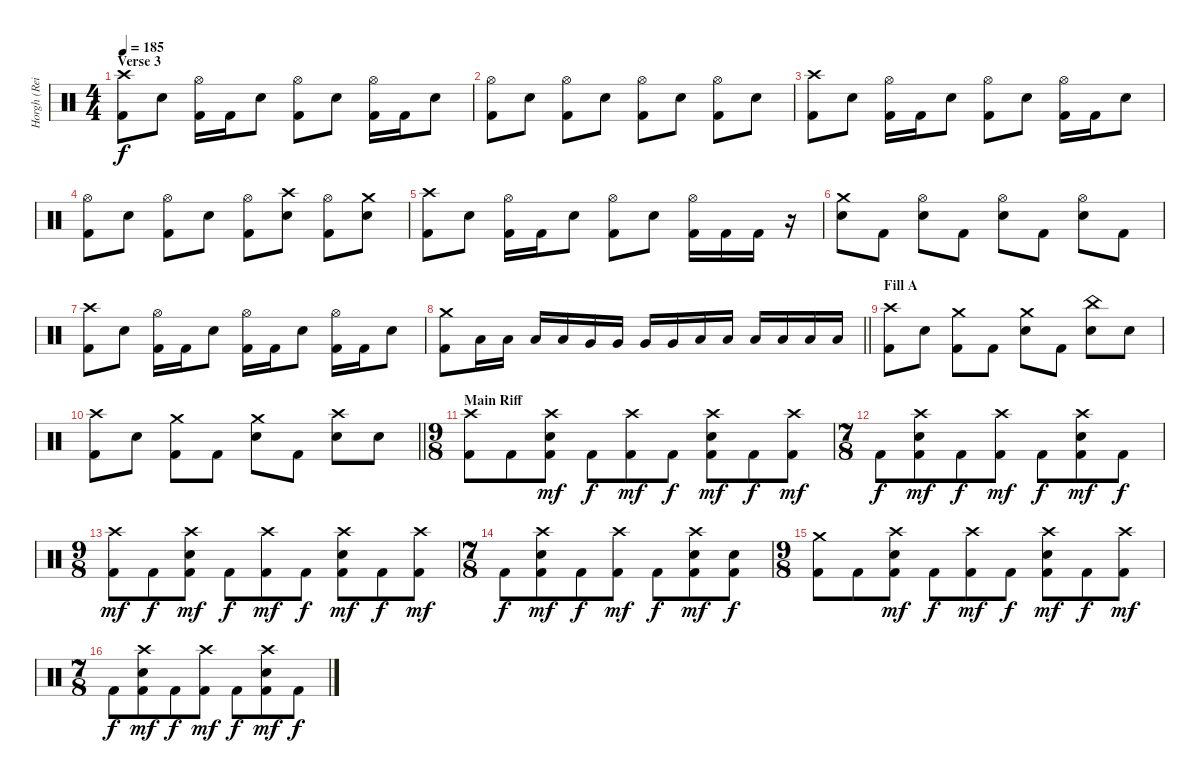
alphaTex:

\track ("Horgh (Reidar Horghagen)" "Horgh (Rei") {instrument percussion}
\staff {score}
\articulation defaults
\ts (4 4)
\section ("" "Verse 3")
\tempo 185
\clef neutral
\ks c
("Crash high (hit)" "Kick (hit) 2").8{dy f} "Snare (hit) 2".8 ("Hi-Hat (open)" "Kick (hit) 2").16 "Kick (hit) 2".16 "Snare (hit) 2".8 ("Hi-Hat (open)" "Kick (hit) 2").8 "Snare (hit) 2".8 ("Hi-Hat (open)" "Kick (hit) 2").16 "Kick (hit) 2".16 "Snare (hit) 2".8 |
("Hi-Hat (open)" "Kick (hit) 2").8 "Snare (hit) 2".8 ("Hi-Hat (open)" "Kick (hit) 2").8 "Snare (hit) 2".8 ("Hi-Hat (open)" "Kick (hit) 2").8 "Snare (hit) 2".8 ("Hi-Hat (open)" "Kick (hit) 2").8 "Snare (hit) 2".8 |
("Crash high (hit)" "Kick (hit) 2").8 "Snare (hit) 2".8 ("Hi-Hat (open)" "Kick (hit) 2").16 "Kick (hit) 2".16 "Snare (hit) 2".8 ("Hi-Hat (open)" "Kick (hit) 2").8 "Snare (hit) 2".8 ("Hi-Hat (open)" "Kick (hit) 2").16 "Kick (hit) 2".16 "Snare (hit) 2".8 |
("Hi-Hat (open)" "Kick (hit) 2").8 "Snare (hit) 2".8 ("Hi-Hat (open)" "Kick (hit) 2").8 "Snare (hit) 2".8 ("Hi-Hat (open)" "Kick (hit) 2").8 ("Crash high (hit)" "Snare (hit) 2").8 ("Hi-Hat (open)" "Kick (hit) 2").8 ("Crash medium (hit)" "Snare (hit) 2").8 |
("Crash high (hit)" "Kick (hit) 2").8 "Snare (hit) 2".8 ("Hi-Hat (open)" "Kick (hit) 2").16 "Kick (hit) 2".16 "Snare (hit) 2".8 ("Hi-Hat (open)" "Kick (hit) 2").8 "Snare (hit) 2".8 ("Hi-Hat (open)" "Kick (hit) 2").16 "Kick (hit) 2".16 "Kick (hit) 2".16 r.16 |
("Crash medium (hit)" "Snare (hit) 2").8 "Kick (hit) 2".8 ("Hi-Hat (open)" "Snare (hit) 2").8 "Kick (hit) 2".8 ("Hi-Hat (open)" "Snare (hit) 2").8 "Kick (hit) 2".8 ("Hi-Hat (open)" "Snare (hit) 2").8 "Kick (hit) 2".8 |
("Crash high (hit)" "Kick (hit) 2").8 "Snare (hit) 2".8 ("Hi-Hat (open)" "Kick (hit) 2").16 "Kick (hit) 2".16 "Snare (hit) 2".8 ("Hi-Hat (open)" "Kick (hit) 2").16 "Kick (hit) 2".16 "Snare (hit) 2".8 ("Hi-Hat (open)" "Kick (hit) 2").16 "Kick (hit) 2".16 "Snare (hit) 2".8 |
\barLineRight lightlight
("Crash medium (hit)" "Kick (hit) 2").8 "Low Tom (hit)".16 "Low Tom (hit)".16 "Low Tom (hit)".16 "Low Tom (hit)".16 "Very Low Tom (hit)".16 "Very Low Tom (hit)".16 "Very Low Tom (hit)".16 "Very Low Tom (hit)".16 "Low Floor Tom (hit)".16 "Low Floor Tom (hit)".16 "Low Floor Tom (hit)".16 "Low Floor Tom (hit)".16 "Low Floor Tom (hit)".16 "Low Floor Tom (hit)".16 |
\section ("" "Fill A")
("Crash high (hit)" "Kick (hit) 2").8 "Snare (hit) 2".8 ("Crash medium (hit)" "Kick (hit) 2").8 "Kick (hit) 2".8 ("Crash medium (hit)" "Snare (hit) 2").8 "Kick (hit) 2".8 ("China (hit)" "Snare (hit) 2").8 "Snare (hit) 2".8 |
\barLineRight lightlight
("Crash high (hit)" "Kick (hit) 2").8 "Snare (hit) 2".8 ("Crash medium (hit)" "Kick (hit) 2").8 "Kick (hit) 2".8 ("Crash medium (hit)" "Snare (hit) 2").8 "Kick (hit) 2".8 ("Crash high (hit)" "Snare (hit) 2").8 "Snare (hit) 2".8 |
\ts (9 8)
\section ("" "Main Riff")
("Crash high (hit)" "Kick (hit) 2").8 "Kick (hit) 2".8 ("Crash high (hit)" "Snare (hit) 2" "Kick (hit) 2").8{dy mf} "Kick (hit) 2".8{dy f} ("Crash high (hit)" "Kick (hit) 2").8{dy mf} "Kick (hit) 2".8{dy f} ("Crash high (hit)" "Snare (hit) 2" "Kick (hit) 2").8{dy mf} "Kick (hit) 2".8{dy f} ("Crash high (hit)" "Kick (hit) 2").8{dy mf} |
\ts (7 8)
"Kick (hit) 2".8{dy f} ("Crash high (hit)" "Snare (hit) 2" "Kick (hit) 2").8{dy mf} "Kick (hit) 2".8{dy f} ("Crash high (hit)" "Kick (hit) 2").8{dy mf} "Kick (hit) 2".8{dy f} ("Crash high (hit)" "Snare (hit) 2" "Kick (hit) 2").8{dy mf} "Kick (hit) 2".8{dy f} |
\ts (9 8)
("Crash high (hit)" "Kick (hit) 2").8{dy mf} "Kick (hit) 2".8{dy f} ("Crash high (hit)" "Snare (hit) 2" "Kick (hit) 2").8{dy mf} "Kick (hit) 2".8{dy f} ("Crash high (hit)" "Kick (hit) 2").8{dy mf} "Kick (hit) 2".8{dy f} ("Crash high (hit)" "Snare (hit) 2" "Kick (hit) 2").8{dy mf} "Kick (hit) 2".8{dy f} ("Crash high (hit)" "Kick (hit) 2").8{dy mf} |
\ts (7 8)
"Kick (hit) 2".8{dy f} ("Crash high (hit)" "Snare (hit) 2" "Kick (hit) 2").8{dy mf} "Kick (hit) 2".8{dy f} ("Crash high (hit)" "Kick (hit) 2").8{dy mf} "Kick (hit) 2".8{dy f} ("Crash high (hit)" "Snare (hit) 2" "Kick (hit) 2").8{dy mf} ("Snare (hit) 2" "Kick (hit) 2").8{dy f} |
\ts (9 8)
("Crash medium (hit)" "Kick (hit) 2").8 "Kick (hit) 2".8 ("Crash high (hit)" "Snare (hit) 2" "Kick (hit) 2").8{dy mf} "Kick (hit) 2".8{dy f} ("Crash high (hit)" "Kick (hit) 2").8{dy mf} "Kick (hit) 2".8{dy f} ("Crash high (hit)" "Snare (hit) 2" "Kick (hit) 2").8{dy mf} "Kick (hit) 2".8{dy f} ("Crash high (hit)" "Kick (hit) 2").8{dy mf} |
\ts (7 8)
"Kick (hit) 2".8{dy f} ("Crash high (hit)" "Snare (hit) 2" "Kick (hit) 2").8{dy mf} "Kick (hit) 2".8{dy f} ("Crash high (hit)" "Kick (hit) 2").8{dy mf} "Kick (hit) 2".8{dy f} ("Crash high (hit)" "Snare (hit) 2" "Kick (hit) 2").8{dy mf} "Kick (hit) 2".8{dy f}
